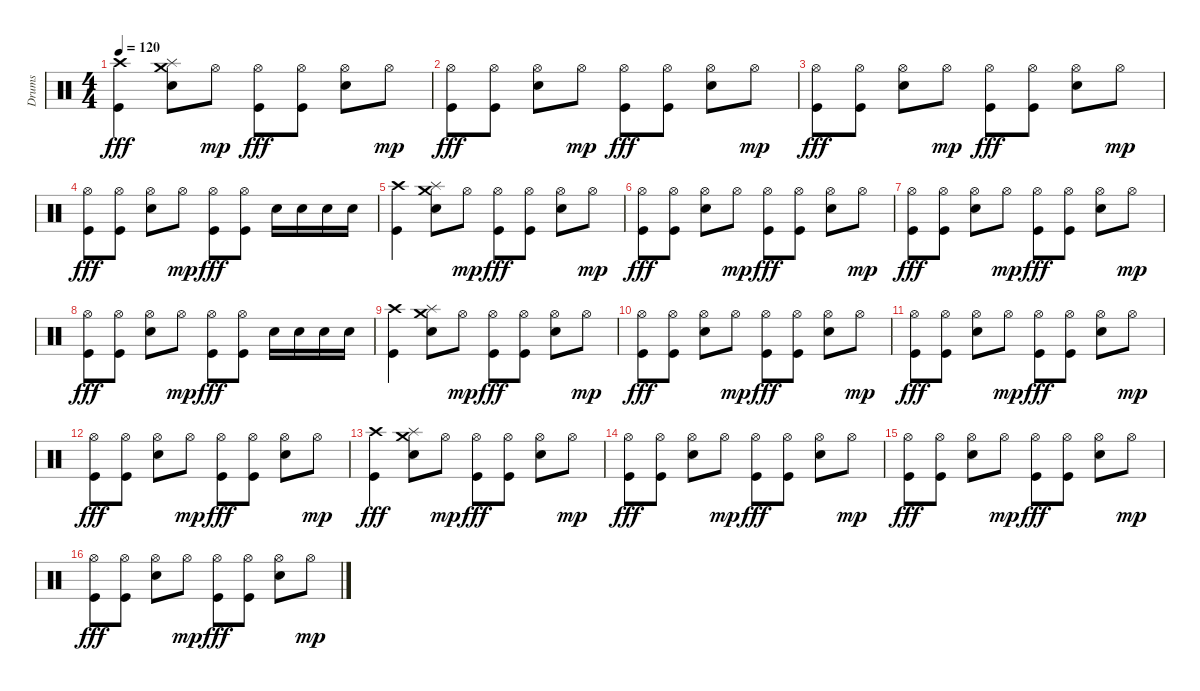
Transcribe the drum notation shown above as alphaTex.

\track ("Drums" "Drums") {instrument percussion}
\staff {score}
\articulation defaults
\ts (4 4)
\tempo 120
\clef neutral
\ks c
("Crash high (hit)" "Kick (hit)").4{dy fff} ("Crash medium (hit)" "Splash (hit)" "Electric Snare (hit)").8 "Hi-Hat (open)".8{dy mp} ("Hi-Hat (open)" "Kick (hit)").8{dy fff} ("Hi-Hat (open)" "Kick (hit)").8 ("Hi-Hat (open)" "Electric Snare (hit)").8 "Hi-Hat (open)".8{dy mp} |
("Hi-Hat (open)" "Kick (hit)").8{dy fff} ("Hi-Hat (open)" "Kick (hit)").8 ("Hi-Hat (open)" "Electric Snare (hit)").8 "Hi-Hat (open)".8{dy mp} ("Hi-Hat (open)" "Kick (hit)").8{dy fff} ("Hi-Hat (open)" "Kick (hit)").8 ("Hi-Hat (open)" "Electric Snare (hit)").8 "Hi-Hat (open)".8{dy mp} |
("Hi-Hat (open)" "Kick (hit)").8{dy fff} ("Hi-Hat (open)" "Kick (hit)").8 ("Hi-Hat (open)" "Electric Snare (hit)").8 "Hi-Hat (open)".8{dy mp} ("Hi-Hat (open)" "Kick (hit)").8{dy fff} ("Hi-Hat (open)" "Kick (hit)").8 ("Hi-Hat (open)" "Electric Snare (hit)").8 "Hi-Hat (open)".8{dy mp} |
("Hi-Hat (open)" "Kick (hit)").8{dy fff} ("Hi-Hat (open)" "Kick (hit)").8 ("Hi-Hat (open)" "Electric Snare (hit)").8 "Hi-Hat (open)".8{dy mp} ("Hi-Hat (open)" "Kick (hit)").8{dy fff} ("Hi-Hat (open)" "Kick (hit)").8 "Electric Snare (hit)".16 "Electric Snare (hit)".16 "Electric Snare (hit)".16 "Electric Snare (hit)".16 |
("Crash high (hit)" "Kick (hit)").4 ("Crash medium (hit)" "Splash (hit)" "Electric Snare (hit)").8 "Hi-Hat (open)".8{dy mp} ("Hi-Hat (open)" "Kick (hit)").8{dy fff} ("Hi-Hat (open)" "Kick (hit)").8 ("Hi-Hat (open)" "Electric Snare (hit)").8 "Hi-Hat (open)".8{dy mp} |
("Hi-Hat (open)" "Kick (hit)").8{dy fff} ("Hi-Hat (open)" "Kick (hit)").8 ("Hi-Hat (open)" "Electric Snare (hit)").8 "Hi-Hat (open)".8{dy mp} ("Hi-Hat (open)" "Kick (hit)").8{dy fff} ("Hi-Hat (open)" "Kick (hit)").8 ("Hi-Hat (open)" "Electric Snare (hit)").8 "Hi-Hat (open)".8{dy mp} |
("Hi-Hat (open)" "Kick (hit)").8{dy fff} ("Hi-Hat (open)" "Kick (hit)").8 ("Hi-Hat (open)" "Electric Snare (hit)").8 "Hi-Hat (open)".8{dy mp} ("Hi-Hat (open)" "Kick (hit)").8{dy fff} ("Hi-Hat (open)" "Kick (hit)").8 ("Hi-Hat (open)" "Electric Snare (hit)").8 "Hi-Hat (open)".8{dy mp} |
("Hi-Hat (open)" "Kick (hit)").8{dy fff} ("Hi-Hat (open)" "Kick (hit)").8 ("Hi-Hat (open)" "Electric Snare (hit)").8 "Hi-Hat (open)".8{dy mp} ("Hi-Hat (open)" "Kick (hit)").8{dy fff} ("Hi-Hat (open)" "Kick (hit)").8 "Electric Snare (hit)".16 "Electric Snare (hit)".16 "Electric Snare (hit)".16 "Electric Snare (hit)".16 |
("Crash high (hit)" "Kick (hit)").4 ("Crash medium (hit)" "Splash (hit)" "Electric Snare (hit)").8 "Hi-Hat (open)".8{dy mp} ("Hi-Hat (open)" "Kick (hit)").8{dy fff} ("Hi-Hat (open)" "Kick (hit)").8 ("Hi-Hat (open)" "Electric Snare (hit)").8 "Hi-Hat (open)".8{dy mp} |
("Hi-Hat (open)" "Kick (hit)").8{dy fff} ("Hi-Hat (open)" "Kick (hit)").8 ("Hi-Hat (open)" "Electric Snare (hit)").8 "Hi-Hat (open)".8{dy mp} ("Hi-Hat (open)" "Kick (hit)").8{dy fff} ("Hi-Hat (open)" "Kick (hit)").8 ("Hi-Hat (open)" "Electric Snare (hit)").8 "Hi-Hat (open)".8{dy mp} |
("Hi-Hat (open)" "Kick (hit)").8{dy fff} ("Hi-Hat (open)" "Kick (hit)").8 ("Hi-Hat (open)" "Electric Snare (hit)").8 "Hi-Hat (open)".8{dy mp} ("Hi-Hat (open)" "Kick (hit)").8{dy fff} ("Hi-Hat (open)" "Kick (hit)").8 ("Hi-Hat (open)" "Electric Snare (hit)").8 "Hi-Hat (open)".8{dy mp} |
("Hi-Hat (open)" "Kick (hit)").8{dy fff} ("Hi-Hat (open)" "Kick (hit)").8 ("Hi-Hat (open)" "Electric Snare (hit)").8 "Hi-Hat (open)".8{dy mp} ("Hi-Hat (open)" "Kick (hit)").8{dy fff} ("Hi-Hat (open)" "Kick (hit)").8 ("Hi-Hat (open)" "Electric Snare (hit)").8 "Hi-Hat (open)".8{dy mp} |
("Crash high (hit)" "Kick (hit)").4{dy fff} ("Crash medium (hit)" "Splash (hit)" "Electric Snare (hit)").8 "Hi-Hat (open)".8{dy mp} ("Hi-Hat (open)" "Kick (hit)").8{dy fff} ("Hi-Hat (open)" "Kick (hit)").8 ("Hi-Hat (open)" "Electric Snare (hit)").8 "Hi-Hat (open)".8{dy mp} |
("Hi-Hat (open)" "Kick (hit)").8{dy fff} ("Hi-Hat (open)" "Kick (hit)").8 ("Hi-Hat (open)" "Electric Snare (hit)").8 "Hi-Hat (open)".8{dy mp} ("Hi-Hat (open)" "Kick (hit)").8{dy fff} ("Hi-Hat (open)" "Kick (hit)").8 ("Hi-Hat (open)" "Electric Snare (hit)").8 "Hi-Hat (open)".8{dy mp} |
("Hi-Hat (open)" "Kick (hit)").8{dy fff} ("Hi-Hat (open)" "Kick (hit)").8 ("Hi-Hat (open)" "Electric Snare (hit)").8 "Hi-Hat (open)".8{dy mp} ("Hi-Hat (open)" "Kick (hit)").8{dy fff} ("Hi-Hat (open)" "Kick (hit)").8 ("Hi-Hat (open)" "Electric Snare (hit)").8 "Hi-Hat (open)".8{dy mp} |
("Hi-Hat (open)" "Kick (hit)").8{dy fff} ("Hi-Hat (open)" "Kick (hit)").8 ("Hi-Hat (open)" "Electric Snare (hit)").8 "Hi-Hat (open)".8{dy mp} ("Hi-Hat (open)" "Kick (hit)").8{dy fff} ("Hi-Hat (open)" "Kick (hit)").8 ("Hi-Hat (open)" "Electric Snare (hit)").8 "Hi-Hat (open)".8{dy mp}
